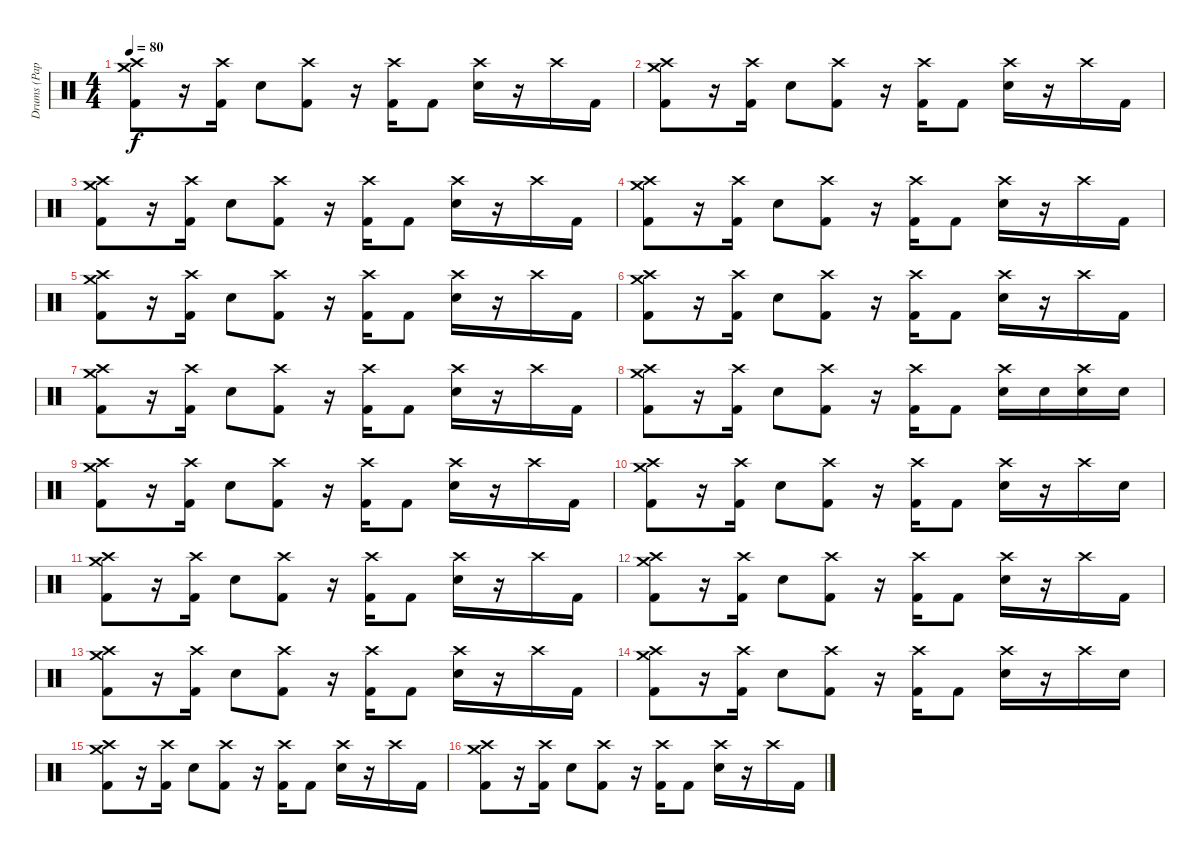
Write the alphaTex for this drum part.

\track ("Drums (Pappas)" "Drums (Pap") {instrument percussion}
\staff {score}
\articulation defaults
\ts (4 4)
\tempo 80
\clef neutral
\ks c
("Crash medium (hit)" "Crash high (hit)" "Kick (hit) 2").8{dy f} r.16 ("Crash high (hit)" "Kick (hit) 2").16 "Electric Snare (hit)".8 ("Crash high (hit)" "Kick (hit) 2").8 r.16 ("Crash high (hit)" "Kick (hit) 2").16 "Kick (hit) 2".8 ("Crash high (hit)" "Electric Snare (hit)").16 r.16 "Crash high (hit)".16 "Kick (hit) 2".16 |
("Crash medium (hit)" "Crash high (hit)" "Kick (hit) 2").8 r.16 ("Crash high (hit)" "Kick (hit) 2").16 "Electric Snare (hit)".8 ("Crash high (hit)" "Kick (hit) 2").8 r.16 ("Crash high (hit)" "Kick (hit) 2").16 "Kick (hit) 2".8 ("Crash high (hit)" "Electric Snare (hit)").16 r.16 "Crash high (hit)".16 "Kick (hit) 2".16 |
("Crash medium (hit)" "Crash high (hit)" "Kick (hit) 2").8 r.16 ("Crash high (hit)" "Kick (hit) 2").16 "Electric Snare (hit)".8 ("Crash high (hit)" "Kick (hit) 2").8 r.16 ("Crash high (hit)" "Kick (hit) 2").16 "Kick (hit) 2".8 ("Crash high (hit)" "Electric Snare (hit)").16 r.16 "Crash high (hit)".16 "Kick (hit) 2".16 |
("Crash medium (hit)" "Crash high (hit)" "Kick (hit) 2").8 r.16 ("Crash high (hit)" "Kick (hit) 2").16 "Electric Snare (hit)".8 ("Crash high (hit)" "Kick (hit) 2").8 r.16 ("Crash high (hit)" "Kick (hit) 2").16 "Kick (hit) 2".8 ("Crash high (hit)" "Electric Snare (hit)").16 r.16 "Crash high (hit)".16 "Kick (hit) 2".16 |
("Crash medium (hit)" "Crash high (hit)" "Kick (hit) 2").8 r.16 ("Crash high (hit)" "Kick (hit) 2").16 "Electric Snare (hit)".8 ("Crash high (hit)" "Kick (hit) 2").8 r.16 ("Crash high (hit)" "Kick (hit) 2").16 "Kick (hit) 2".8 ("Crash high (hit)" "Electric Snare (hit)").16 r.16 "Crash high (hit)".16 "Kick (hit) 2".16 |
("Crash medium (hit)" "Crash high (hit)" "Kick (hit) 2").8 r.16 ("Crash high (hit)" "Kick (hit) 2").16 "Electric Snare (hit)".8 ("Crash high (hit)" "Kick (hit) 2").8 r.16 ("Crash high (hit)" "Kick (hit) 2").16 "Kick (hit) 2".8 ("Crash high (hit)" "Electric Snare (hit)").16 r.16 "Crash high (hit)".16 "Kick (hit) 2".16 |
("Crash medium (hit)" "Crash high (hit)" "Kick (hit) 2").8 r.16 ("Crash high (hit)" "Kick (hit) 2").16 "Electric Snare (hit)".8 ("Crash high (hit)" "Kick (hit) 2").8 r.16 ("Crash high (hit)" "Kick (hit) 2").16 "Kick (hit) 2".8 ("Crash high (hit)" "Electric Snare (hit)").16 r.16 "Crash high (hit)".16 "Kick (hit) 2".16 |
("Crash medium (hit)" "Crash high (hit)" "Kick (hit) 2").8 r.16 ("Crash high (hit)" "Kick (hit) 2").16 "Electric Snare (hit)".8 ("Crash high (hit)" "Kick (hit) 2").8 r.16 ("Crash high (hit)" "Kick (hit) 2").16 "Kick (hit) 2".8 ("Crash high (hit)" "Electric Snare (hit)").16 "Electric Snare (hit)".16 ("Crash high (hit)" "Electric Snare (hit)").16 "Electric Snare (hit)".16 |
("Crash medium (hit)" "Crash high (hit)" "Kick (hit) 2").8 r.16 ("Crash high (hit)" "Kick (hit) 2").16 "Electric Snare (hit)".8 ("Crash high (hit)" "Kick (hit) 2").8 r.16 ("Crash high (hit)" "Kick (hit) 2").16 "Kick (hit) 2".8 ("Crash high (hit)" "Electric Snare (hit)").16 r.16 "Crash high (hit)".16 "Kick (hit) 2".16 |
("Crash medium (hit)" "Crash high (hit)" "Kick (hit) 2").8 r.16 ("Crash high (hit)" "Kick (hit) 2").16 "Electric Snare (hit)".8 ("Crash high (hit)" "Kick (hit) 2").8 r.16 ("Crash high (hit)" "Kick (hit) 2").16 "Kick (hit) 2".8 ("Crash high (hit)" "Electric Snare (hit)").16 r.16 "Crash high (hit)".16 "Electric Snare (hit)".16 |
("Crash medium (hit)" "Crash high (hit)" "Kick (hit) 2").8 r.16 ("Crash high (hit)" "Kick (hit) 2").16 "Electric Snare (hit)".8 ("Crash high (hit)" "Kick (hit) 2").8 r.16 ("Crash high (hit)" "Kick (hit) 2").16 "Kick (hit) 2".8 ("Crash high (hit)" "Electric Snare (hit)").16 r.16 "Crash high (hit)".16 "Kick (hit) 2".16 |
("Crash medium (hit)" "Crash high (hit)" "Kick (hit) 2").8 r.16 ("Crash high (hit)" "Kick (hit) 2").16 "Electric Snare (hit)".8 ("Crash high (hit)" "Kick (hit) 2").8 r.16 ("Crash high (hit)" "Kick (hit) 2").16 "Kick (hit) 2".8 ("Crash high (hit)" "Electric Snare (hit)").16 r.16 "Crash high (hit)".16 "Kick (hit) 2".16 |
("Crash medium (hit)" "Crash high (hit)" "Kick (hit) 2").8 r.16 ("Crash high (hit)" "Kick (hit) 2").16 "Electric Snare (hit)".8 ("Crash high (hit)" "Kick (hit) 2").8 r.16 ("Crash high (hit)" "Kick (hit) 2").16 "Kick (hit) 2".8 ("Crash high (hit)" "Electric Snare (hit)").16 r.16 "Crash high (hit)".16 "Kick (hit) 2".16 |
("Crash medium (hit)" "Crash high (hit)" "Kick (hit) 2").8 r.16 ("Crash high (hit)" "Kick (hit) 2").16 "Electric Snare (hit)".8 ("Crash high (hit)" "Kick (hit) 2").8 r.16 ("Crash high (hit)" "Kick (hit) 2").16 "Kick (hit) 2".8 ("Crash high (hit)" "Electric Snare (hit)").16 r.16 "Crash high (hit)".16 "Electric Snare (hit)".16 |
("Crash medium (hit)" "Crash high (hit)" "Kick (hit) 2").8 r.16 ("Crash high (hit)" "Kick (hit) 2").16 "Electric Snare (hit)".8 ("Crash high (hit)" "Kick (hit) 2").8 r.16 ("Crash high (hit)" "Kick (hit) 2").16 "Kick (hit) 2".8 ("Crash high (hit)" "Electric Snare (hit)").16 r.16 "Crash high (hit)".16 "Kick (hit) 2".16 |
("Crash medium (hit)" "Crash high (hit)" "Kick (hit) 2").8 r.16 ("Crash high (hit)" "Kick (hit) 2").16 "Electric Snare (hit)".8 ("Crash high (hit)" "Kick (hit) 2").8 r.16 ("Crash high (hit)" "Kick (hit) 2").16 "Kick (hit) 2".8 ("Crash high (hit)" "Electric Snare (hit)").16 r.16 "Crash high (hit)".16 "Kick (hit) 2".16
